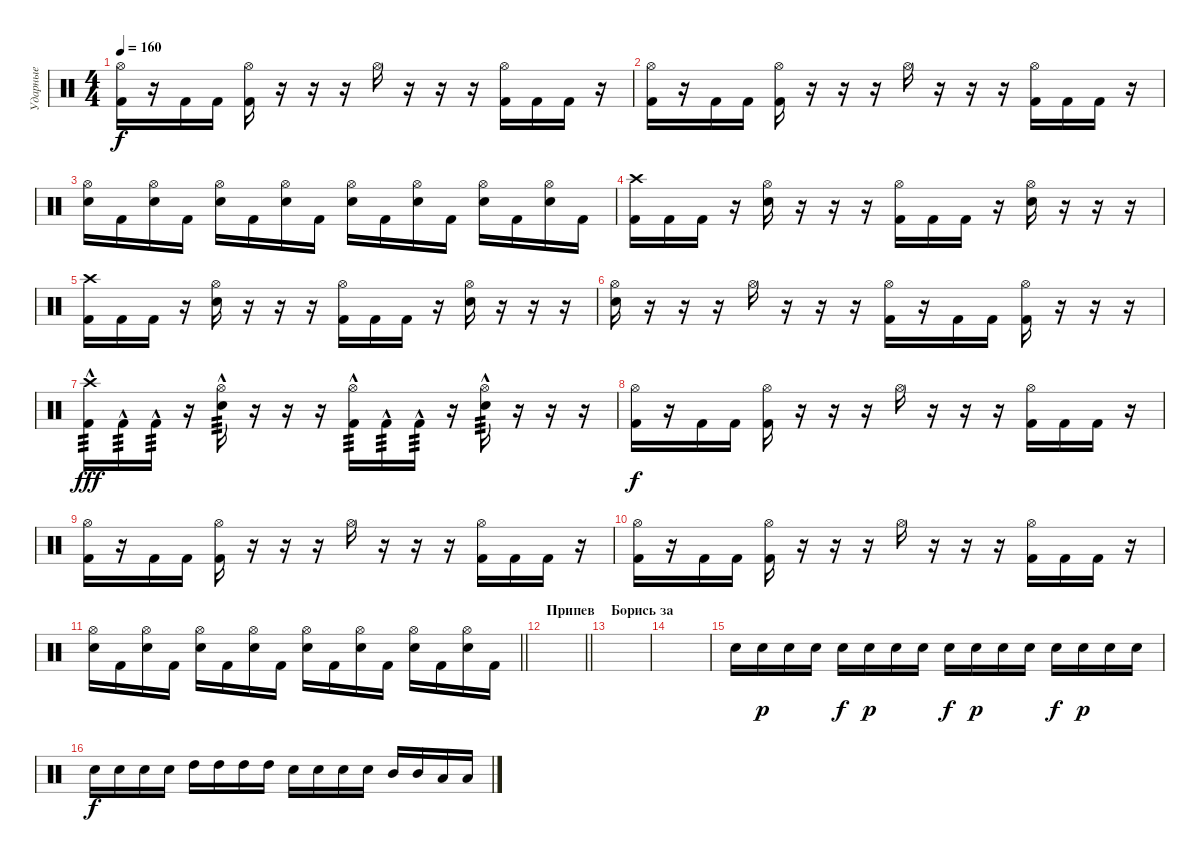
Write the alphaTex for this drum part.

\track ("Ударные" "Ударные") {instrument percussion}
\staff {score}
\articulation defaults
\ts (4 4)
\tempo 160
\clef neutral
\ks c
("Hi-Hat (open)" "Kick (hit) 2").16{dy f} r.16 "Kick (hit) 2".16 "Kick (hit) 2".16 ("Hi-Hat (open)" "Kick (hit) 2").16 r.16 r.16 r.16 "Hi-Hat (open)".16 r.16 r.16 r.16 ("Hi-Hat (open)" "Kick (hit) 2").16 "Kick (hit) 2".16 "Kick (hit) 2".16 r.16 |
("Hi-Hat (open)" "Kick (hit) 2").16 r.16 "Kick (hit) 2".16 "Kick (hit) 2".16 ("Hi-Hat (open)" "Kick (hit) 2").16 r.16 r.16 r.16 "Hi-Hat (open)".16 r.16 r.16 r.16 ("Hi-Hat (open)" "Kick (hit) 2").16 "Kick (hit) 2".16 "Kick (hit) 2".16 r.16 |
("Hi-Hat (open)" "Electric Snare (hit)").16 "Kick (hit) 2".16 ("Hi-Hat (open)" "Electric Snare (hit)").16 "Kick (hit) 2".16 ("Hi-Hat (open)" "Electric Snare (hit)").16 "Kick (hit) 2".16 ("Hi-Hat (open)" "Electric Snare (hit)").16 "Kick (hit) 2".16 ("Hi-Hat (open)" "Electric Snare (hit)").16 "Kick (hit) 2".16 ("Hi-Hat (open)" "Electric Snare (hit)").16 "Kick (hit) 2".16 ("Hi-Hat (open)" "Electric Snare (hit)").16 "Kick (hit) 2".16 ("Hi-Hat (open)" "Electric Snare (hit)").16 "Kick (hit) 2".16 |
("Crash high (hit)" "Kick (hit) 2").16 "Kick (hit) 2".16 "Kick (hit) 2".16 r.16 ("Hi-Hat (open)" "Electric Snare (hit)").16 r.16 r.16 r.16 ("Hi-Hat (open)" "Kick (hit) 2").16 "Kick (hit) 2".16 "Kick (hit) 2".16 r.16 ("Hi-Hat (open)" "Electric Snare (hit)").16 r.16 r.16 r.16 |
("Crash high (hit)" "Kick (hit) 2").16 "Kick (hit) 2".16 "Kick (hit) 2".16 r.16 ("Hi-Hat (open)" "Electric Snare (hit)").16 r.16 r.16 r.16 ("Hi-Hat (open)" "Kick (hit) 2").16 "Kick (hit) 2".16 "Kick (hit) 2".16 r.16 ("Hi-Hat (open)" "Electric Snare (hit)").16 r.16 r.16 r.16 |
("Hi-Hat (open)" "Electric Snare (hit)").16 r.16 r.16 r.16 "Hi-Hat (open)".16 r.16 r.16 r.16 ("Hi-Hat (open)" "Kick (hit) 2").16 r.16 "Kick (hit) 2".16 "Kick (hit) 2".16 ("Hi-Hat (open)" "Kick (hit) 2").16 r.16 r.16 r.16 |
("Crash high (hit)"{hac} "Kick (hit) 2"{hac}).16{tp 3 dy fff} "Kick (hit) 2"{hac}.16{tp 3} "Kick (hit) 2"{hac}.16{tp 3} r.16 ("Hi-Hat (open)"{hac} "Electric Snare (hit)"{hac}).16{tp 3} r.16 r.16 r.16 ("Hi-Hat (open)"{hac} "Kick (hit) 2"{hac}).16{tp 3} "Kick (hit) 2"{hac}.16{tp 3} "Kick (hit) 2"{hac}.16{tp 3} r.16 ("Hi-Hat (open)"{hac} "Electric Snare (hit)"{hac}).16{tp 3} r.16 r.16 r.16 |
("Hi-Hat (open)" "Kick (hit) 2").16{dy f} r.16 "Kick (hit) 2".16 "Kick (hit) 2".16 ("Hi-Hat (open)" "Kick (hit) 2").16 r.16 r.16 r.16 "Hi-Hat (open)".16 r.16 r.16 r.16 ("Hi-Hat (open)" "Kick (hit) 2").16 "Kick (hit) 2".16 "Kick (hit) 2".16 r.16 |
("Hi-Hat (open)" "Kick (hit) 2").16 r.16 "Kick (hit) 2".16 "Kick (hit) 2".16 ("Hi-Hat (open)" "Kick (hit) 2").16 r.16 r.16 r.16 "Hi-Hat (open)".16 r.16 r.16 r.16 ("Hi-Hat (open)" "Kick (hit) 2").16 "Kick (hit) 2".16 "Kick (hit) 2".16 r.16 |
("Hi-Hat (open)" "Kick (hit) 2").16 r.16 "Kick (hit) 2".16 "Kick (hit) 2".16 ("Hi-Hat (open)" "Kick (hit) 2").16 r.16 r.16 r.16 "Hi-Hat (open)".16 r.16 r.16 r.16 ("Hi-Hat (open)" "Kick (hit) 2").16 "Kick (hit) 2".16 "Kick (hit) 2".16 r.16 |
\barLineRight lightlight
("Hi-Hat (open)" "Electric Snare (hit)").16 "Kick (hit) 2".16 ("Hi-Hat (open)" "Electric Snare (hit)").16 "Kick (hit) 2".16 ("Hi-Hat (open)" "Electric Snare (hit)").16 "Kick (hit) 2".16 ("Hi-Hat (open)" "Electric Snare (hit)").16 "Kick (hit) 2".16 ("Hi-Hat (open)" "Electric Snare (hit)").16 "Kick (hit) 2".16 ("Hi-Hat (open)" "Electric Snare (hit)").16 "Kick (hit) 2".16 ("Hi-Hat (open)" "Electric Snare (hit)").16 "Kick (hit) 2".16 ("Hi-Hat (open)" "Electric Snare (hit)").16 "Kick (hit) 2".16 |
\section ("" "Припев")
\barLineRight lightlight
|
\section ("" "Борись за ")
|
|
"Electric Snare (hit)".16 "Electric Snare (hit)".16{dy p} "Electric Snare (hit)".16 "Electric Snare (hit)".16 "Electric Snare (hit)".16{dy f} "Electric Snare (hit)".16{dy p} "Electric Snare (hit)".16 "Electric Snare (hit)".16 "Electric Snare (hit)".16{dy f} "Electric Snare (hit)".16{dy p} "Electric Snare (hit)".16 "Electric Snare (hit)".16 "Electric Snare (hit)".16{dy f} "Electric Snare (hit)".16{dy p} "Electric Snare (hit)".16 "Electric Snare (hit)".16 |
"Electric Snare (hit)".16{dy f} "Electric Snare (hit)".16 "Electric Snare (hit)".16 "Electric Snare (hit)".16 "High Tom (hit)".16 "High Tom (hit)".16 "High Tom (hit)".16 "High Tom (hit)".16 "Electric Snare (hit)".16 "Electric Snare (hit)".16 "Electric Snare (hit)".16 "Electric Snare (hit)".16 "Mid Tom (hit)".16 "Mid Tom (hit)".16 "Low Tom (hit)".16 "Low Tom (hit)".16
